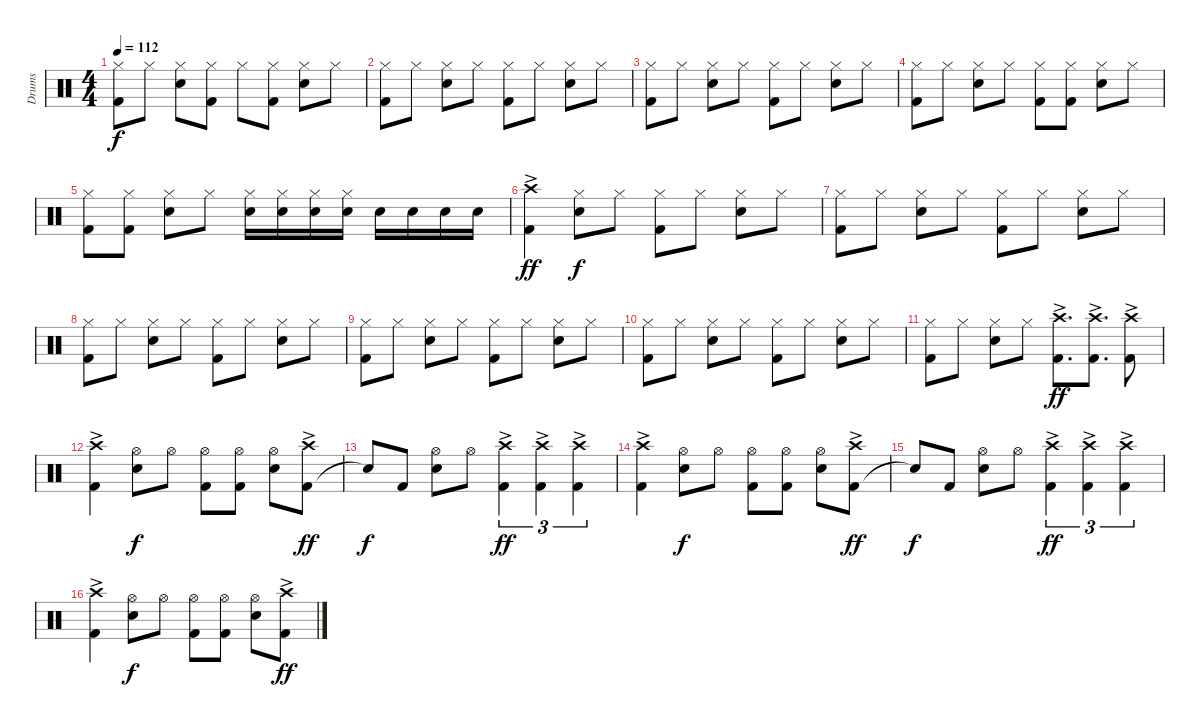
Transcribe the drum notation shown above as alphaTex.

\track ("Drums" "Drums") {instrument percussion}
\staff {score}
\articulation defaults
\ts (4 4)
\tempo 112
\clef neutral
\ks c
("Kick (hit) 2" "Hi-Hat (closed)").8{dy f} "Hi-Hat (closed)".8 ("Snare (hit) 2" "Hi-Hat (closed)").8 ("Kick (hit) 2" "Hi-Hat (closed)").8 "Hi-Hat (closed)".8 ("Kick (hit) 2" "Hi-Hat (closed)").8 ("Snare (hit) 2" "Hi-Hat (closed)").8 "Hi-Hat (closed)".8 |
("Kick (hit) 2" "Hi-Hat (closed)").8 "Hi-Hat (closed)".8 ("Snare (hit) 2" "Hi-Hat (closed)").8 "Hi-Hat (closed)".8 ("Kick (hit) 2" "Hi-Hat (closed)").8 "Hi-Hat (closed)".8 ("Snare (hit) 2" "Hi-Hat (closed)").8 "Hi-Hat (closed)".8 |
("Kick (hit) 2" "Hi-Hat (closed)").8 "Hi-Hat (closed)".8 ("Snare (hit) 2" "Hi-Hat (closed)").8 "Hi-Hat (closed)".8 ("Kick (hit) 2" "Hi-Hat (closed)").8 "Hi-Hat (closed)".8 ("Snare (hit) 2" "Hi-Hat (closed)").8 "Hi-Hat (closed)".8 |
("Kick (hit) 2" "Hi-Hat (closed)").8 "Hi-Hat (closed)".8 ("Snare (hit) 2" "Hi-Hat (closed)").8 "Hi-Hat (closed)".8 ("Kick (hit) 2" "Hi-Hat (closed)").8 ("Kick (hit) 2" "Hi-Hat (closed)").8 ("Snare (hit) 2" "Hi-Hat (closed)").8 "Hi-Hat (closed)".8 |
("Kick (hit) 2" "Hi-Hat (closed)").8 ("Kick (hit) 2" "Hi-Hat (closed)").8 ("Snare (hit) 2" "Hi-Hat (closed)").8 "Hi-Hat (closed)".8 ("Electric Snare (hit)" "Hi-Hat (closed)").16 ("Electric Snare (hit)" "Hi-Hat (closed)").16 ("Electric Snare (hit)" "Hi-Hat (closed)").16 ("Electric Snare (hit)" "Hi-Hat (closed)").16 "Snare (hit) 2".16 "Snare (hit) 2".16 "Snare (hit) 2".16 "Snare (hit) 2".16 |
("Kick (hit) 2" "Crash high (hit)"{ac}).4{dy ff} ("Snare (hit) 2" "Hi-Hat (closed)").8{dy f} "Hi-Hat (closed)".8 ("Kick (hit) 2" "Hi-Hat (closed)").8 "Hi-Hat (closed)".8 ("Snare (hit) 2" "Hi-Hat (closed)").8 "Hi-Hat (closed)".8 |
("Kick (hit) 2" "Hi-Hat (closed)").8 "Hi-Hat (closed)".8 ("Snare (hit) 2" "Hi-Hat (closed)").8 "Hi-Hat (closed)".8 ("Kick (hit) 2" "Hi-Hat (closed)").8 "Hi-Hat (closed)".8 ("Snare (hit) 2" "Hi-Hat (closed)").8 "Hi-Hat (closed)".8 |
("Kick (hit) 2" "Hi-Hat (closed)").8 "Hi-Hat (closed)".8 ("Snare (hit) 2" "Hi-Hat (closed)").8 "Hi-Hat (closed)".8 ("Kick (hit) 2" "Hi-Hat (closed)").8 "Hi-Hat (closed)".8 ("Snare (hit) 2" "Hi-Hat (closed)").8 "Hi-Hat (closed)".8 |
("Kick (hit) 2" "Hi-Hat (closed)").8 "Hi-Hat (closed)".8 ("Snare (hit) 2" "Hi-Hat (closed)").8 "Hi-Hat (closed)".8 ("Kick (hit) 2" "Hi-Hat (closed)").8 "Hi-Hat (closed)".8 ("Snare (hit) 2" "Hi-Hat (closed)").8 "Hi-Hat (closed)".8 |
("Kick (hit) 2" "Hi-Hat (closed)").8 "Hi-Hat (closed)".8 ("Snare (hit) 2" "Hi-Hat (closed)").8 "Hi-Hat (closed)".8 ("Kick (hit) 2" "Hi-Hat (closed)").8 "Hi-Hat (closed)".8 ("Snare (hit) 2" "Hi-Hat (closed)").8 "Hi-Hat (closed)".8 |
("Kick (hit) 2" "Hi-Hat (closed)").8 "Hi-Hat (closed)".8 ("Snare (hit) 2" "Hi-Hat (closed)").8 "Hi-Hat (closed)".8 ("Kick (hit) 2" "Crash high (hit)"{ac}).8{d dy ff} ("Kick (hit) 2" "Crash high (hit)"{ac}).8{d} ("Kick (hit) 2" "Crash high (hit)"{ac}).8 |
("Kick (hit) 2" "Crash high (hit)"{ac}).4 ("Snare (hit) 2" "Hi-Hat (open)").8{dy f} "Hi-Hat (open)".8 ("Kick (hit) 2" "Hi-Hat (open)").8 ("Kick (hit) 2" "Hi-Hat (open)").8 ("Snare (hit) 2" "Hi-Hat (open)").8 ("Kick (hit) 2" "Crash high (hit)"{ac}).8{dy ff} |
"Snare (hit)"{t}.8{dy f} "Kick (hit) 2".8 ("Snare (hit) 2" "Hi-Hat (open)").8 "Hi-Hat (open)".8 ("Kick (hit) 2" "Crash high (hit)"{ac}).4{tu (3 2) dy ff} ("Kick (hit) 2" "Crash high (hit)"{ac}).4{tu (3 2)} ("Kick (hit) 2" "Crash high (hit)"{ac}).4{tu (3 2)} |
("Kick (hit) 2" "Crash high (hit)"{ac}).4 ("Snare (hit) 2" "Hi-Hat (open)").8{dy f} "Hi-Hat (open)".8 ("Kick (hit) 2" "Hi-Hat (open)").8 ("Kick (hit) 2" "Hi-Hat (open)").8 ("Snare (hit) 2" "Hi-Hat (open)").8 ("Kick (hit) 2" "Crash high (hit)"{ac}).8{dy ff} |
"Snare (hit)"{t}.8{dy f} "Kick (hit) 2".8 ("Snare (hit) 2" "Hi-Hat (open)").8 "Hi-Hat (open)".8 ("Kick (hit) 2" "Crash high (hit)"{ac}).4{tu (3 2) dy ff} ("Kick (hit) 2" "Crash high (hit)"{ac}).4{tu (3 2)} ("Kick (hit) 2" "Crash high (hit)"{ac}).4{tu (3 2)} |
("Kick (hit) 2" "Crash high (hit)"{ac}).4 ("Snare (hit) 2" "Hi-Hat (open)").8{dy f} "Hi-Hat (open)".8 ("Kick (hit) 2" "Hi-Hat (open)").8 ("Kick (hit) 2" "Hi-Hat (open)").8 ("Snare (hit) 2" "Hi-Hat (open)").8 ("Kick (hit) 2" "Crash high (hit)"{ac}).8{dy ff}
